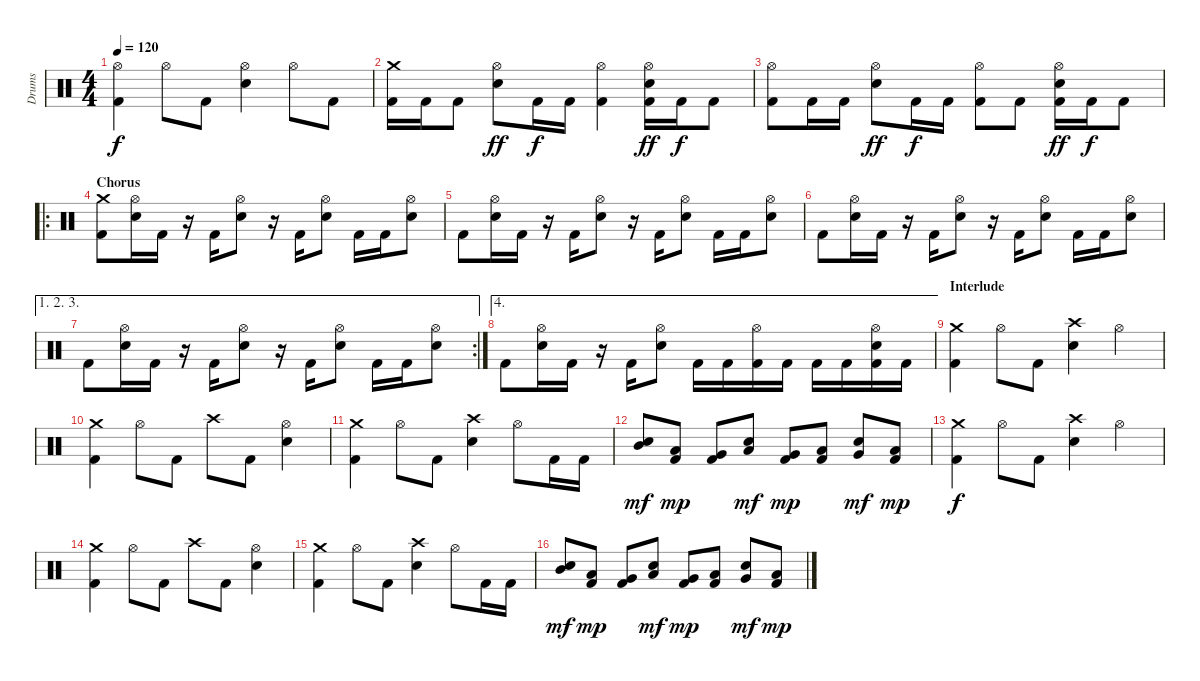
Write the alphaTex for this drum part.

\track ("Drums" "Drums") {instrument percussion}
\staff {score}
\articulation defaults
\ts (4 4)
\tempo 120
\clef neutral
\ks c
("Hi-Hat (open)" "Kick (hit) 2").4{dy f} "Hi-Hat (open)".8 "Kick (hit) 2".8 ("Hi-Hat (open)" "Snare (hit) 2").4 "Hi-Hat (open)".8 "Kick (hit) 2".8 |
("Crash medium (hit)" "Kick (hit) 2").16 "Kick (hit) 2".16 "Kick (hit) 2".8 ("Hi-Hat (open)" "Snare (hit) 2").8{dy ff} "Kick (hit) 2".16{dy f} "Kick (hit) 2".16 ("Hi-Hat (open)" "Kick (hit) 2").4 ("Hi-Hat (open)" "Snare (hit) 2" "Kick (hit) 2").16{dy ff} "Kick (hit) 2".16{dy f} "Kick (hit) 2".8 |
("Hi-Hat (open)" "Kick (hit) 2").8 "Kick (hit) 2".16 "Kick (hit) 2".16 ("Hi-Hat (open)" "Snare (hit) 2").8{dy ff} "Kick (hit) 2".16{dy f} "Kick (hit) 2".16 ("Hi-Hat (open)" "Kick (hit) 2").8 "Kick (hit) 2".8 ("Hi-Hat (open)" "Snare (hit) 2" "Kick (hit) 2").16{dy ff} "Kick (hit) 2".16{dy f} "Kick (hit) 2".8 |
\ro
\section ("" "Chorus")
("Crash medium (hit)" "Kick (hit) 2").8 ("Hi-Hat (open)" "Snare (hit) 2").16 "Kick (hit) 2".16 r.16 "Kick (hit) 2".16 ("Hi-Hat (open)" "Snare (hit) 2").8 r.16 "Kick (hit) 2".16 ("Hi-Hat (open)" "Snare (hit) 2").8 "Kick (hit) 2".16 "Kick (hit) 2".16 ("Hi-Hat (open)" "Snare (hit) 2").8 |
"Kick (hit) 2".8 ("Hi-Hat (open)" "Snare (hit) 2").16 "Kick (hit) 2".16 r.16 "Kick (hit) 2".16 ("Hi-Hat (open)" "Snare (hit) 2").8 r.16 "Kick (hit) 2".16 ("Hi-Hat (open)" "Snare (hit) 2").8 "Kick (hit) 2".16 "Kick (hit) 2".16 ("Hi-Hat (open)" "Snare (hit) 2").8 |
"Kick (hit) 2".8 ("Hi-Hat (open)" "Snare (hit) 2").16 "Kick (hit) 2".16 r.16 "Kick (hit) 2".16 ("Hi-Hat (open)" "Snare (hit) 2").8 r.16 "Kick (hit) 2".16 ("Hi-Hat (open)" "Snare (hit) 2").8 "Kick (hit) 2".16 "Kick (hit) 2".16 ("Hi-Hat (open)" "Snare (hit) 2").8 |
\ae (1 2 3)
\rc 2 "Kick (hit) 2".8
("Hi-Hat (open)" "Snare (hit) 2").16 "Kick (hit) 2".16 r.16 "Kick (hit) 2".16 ("Hi-Hat (open)" "Snare (hit) 2").8 r.16 "Kick (hit) 2".16 ("Hi-Hat (open)" "Snare (hit) 2").8 "Kick (hit) 2".16 "Kick (hit) 2".16 ("Hi-Hat (open)" "Snare (hit) 2").8 |
\ae 4 "Kick (hit) 2".8
("Hi-Hat (open)" "Snare (hit) 2").16 "Kick (hit) 2".16 r.16 "Kick (hit) 2".16 ("Hi-Hat (open)" "Snare (hit) 2").8 "Kick (hit) 2".16 "Kick (hit) 2".16 ("Hi-Hat (open)" "Kick (hit) 2").16 "Kick (hit) 2".16 "Kick (hit) 2".16 "Kick (hit) 2".16 ("Hi-Hat (open)" "Snare (hit) 2" "Kick (hit) 2").16 "Kick (hit) 2".16 |
\section ("" "Interlude")
("Crash medium (hit)" "Kick (hit) 2").4 "Hi-Hat (open)".8 "Kick (hit) 2".8 ("Crash high (hit)" "Snare (hit) 2").4 "Hi-Hat (open)".4 |
("Crash medium (hit)" "Kick (hit) 2").4 "Hi-Hat (open)".8 "Kick (hit) 2".8 "Crash high (hit)".8 "Kick (hit) 2".8 ("Hi-Hat (open)" "Snare (hit) 2").4 |
("Crash medium (hit)" "Kick (hit) 2").4 "Hi-Hat (open)".8 "Kick (hit) 2".8 ("Crash high (hit)" "Snare (hit) 2").4 "Hi-Hat (open)".8 "Kick (hit) 2".16 "Kick (hit) 2".16 |
("Mid Tom (hit)" "Snare (hit) 2").8{dy mf} ("Low Tom (hit)" "Kick (hit) 2").8{dy mp} ("Very Low Tom (hit)" "Kick (hit) 2").8 ("Low Tom (hit)" "Snare (hit) 2").8{dy mf} ("Very Low Tom (hit)" "Kick (hit) 2").8{dy mp} ("Low Floor Tom (hit)" "Kick (hit) 2").8 ("Very Low Tom (hit)" "Snare (hit) 2").8{dy mf} ("Low Floor Tom (hit)" "Kick (hit) 2").8{dy mp} |
("Crash medium (hit)" "Kick (hit) 2").4{dy f} "Hi-Hat (open)".8 "Kick (hit) 2".8 ("Crash high (hit)" "Snare (hit) 2").4 "Hi-Hat (open)".4 |
("Crash medium (hit)" "Kick (hit) 2").4 "Hi-Hat (open)".8 "Kick (hit) 2".8 "Crash high (hit)".8 "Kick (hit) 2".8 ("Hi-Hat (open)" "Snare (hit) 2").4 |
("Crash medium (hit)" "Kick (hit) 2").4 "Hi-Hat (open)".8 "Kick (hit) 2".8 ("Crash high (hit)" "Snare (hit) 2").4 "Hi-Hat (open)".8 "Kick (hit) 2".16 "Kick (hit) 2".16 |
("Mid Tom (hit)" "Snare (hit) 2").8{dy mf} ("Low Tom (hit)" "Kick (hit) 2").8{dy mp} ("Very Low Tom (hit)" "Kick (hit) 2").8 ("Low Tom (hit)" "Snare (hit) 2").8{dy mf} ("Very Low Tom (hit)" "Kick (hit) 2").8{dy mp} ("Low Floor Tom (hit)" "Kick (hit) 2").8 ("Very Low Tom (hit)" "Snare (hit) 2").8{dy mf} ("Low Floor Tom (hit)" "Kick (hit) 2").8{dy mp}
